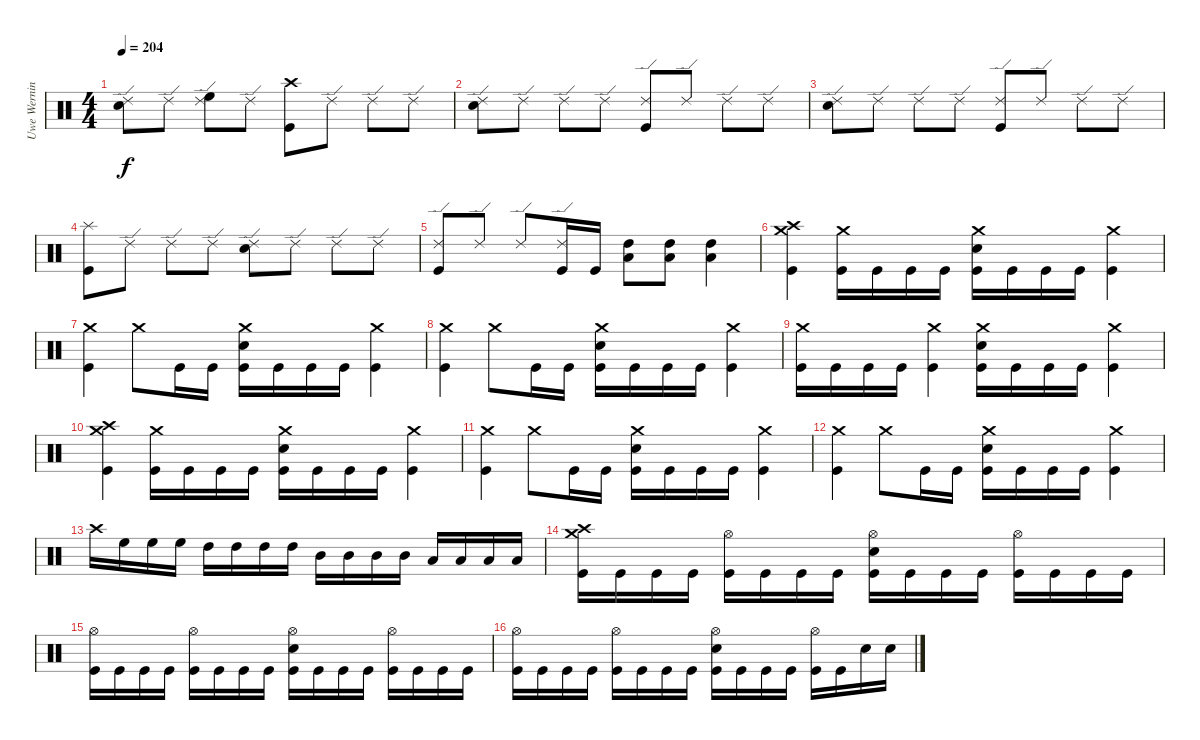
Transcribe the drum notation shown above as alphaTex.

\track ("Uwe Werning" "Uwe Wernin") {instrument percussion}
\staff {score}
\articulation defaults
\ts (4 4)
\tempo 204
\clef neutral
\ks c
("Ride (edge) 2" "Snare (hit) 2").8{dy f} "Ride (edge) 2".8 ("Ride (edge) 2" "High Floor Tom (hit)").8 "Ride (edge) 2".8 ("Crash high (hit)" "Kick (hit)").8 "Ride (edge) 2".8 "Ride (edge) 2".8 "Ride (edge) 2".8 |
("Ride (edge) 2" "Snare (hit) 2").8 "Ride (edge) 2".8 "Ride (edge) 2".8 "Ride (edge) 2".8 ("Ride (edge) 2" "Kick (hit)").8 "Ride (edge) 2".8 "Ride (edge) 2".8 "Ride (edge) 2".8 |
("Ride (edge) 2" "Snare (hit) 2").8 "Ride (edge) 2".8 "Ride (edge) 2".8 "Ride (edge) 2".8 ("Ride (edge) 2" "Kick (hit)").8 "Ride (edge) 2".8 "Ride (edge) 2".8 "Ride (edge) 2".8 |
("Splash (hit)" "Kick (hit)").8 "Ride (edge) 2".8 "Ride (edge) 2".8 "Ride (edge) 2".8 ("Ride (edge) 2" "Snare (hit) 2").8 "Ride (edge) 2".8 "Ride (edge) 2".8 "Ride (edge) 2".8 |
("Ride (edge) 2" "Kick (hit)").8 "Ride (edge) 2".8 "Ride (edge) 2".8 ("Ride (edge) 2" "Kick (hit)").16 "Kick (hit)".16 ("Low Tom (hit)" "High Tom (hit)").8 ("Low Tom (hit)" "High Tom (hit)").8 ("Low Tom (hit)" "High Tom (hit)").4 |
("Crash high (hit)" "Crash medium (hit)" "Kick (hit)").4 ("Crash medium (hit)" "Kick (hit)").16 "Kick (hit)".16 "Kick (hit)".16 "Kick (hit)".16 ("Crash medium (hit)" "Snare (hit) 2" "Kick (hit)").16 "Kick (hit)".16 "Kick (hit)".16 "Kick (hit)".16 ("Crash medium (hit)" "Kick (hit)").4 |
("Crash medium (hit)" "Kick (hit)").4 "Crash medium (hit)".8 "Kick (hit)".16 "Kick (hit)".16 ("Crash medium (hit)" "Snare (hit) 2" "Kick (hit)").16 "Kick (hit)".16 "Kick (hit)".16 "Kick (hit)".16 ("Crash medium (hit)" "Kick (hit)").4 |
("Crash medium (hit)" "Kick (hit)").4 "Crash medium (hit)".8 "Kick (hit)".16 "Kick (hit)".16 ("Crash medium (hit)" "Snare (hit) 2" "Kick (hit)").16 "Kick (hit)".16 "Kick (hit)".16 "Kick (hit)".16 ("Crash medium (hit)" "Kick (hit)").4 |
("Crash medium (hit)" "Kick (hit)").16 "Kick (hit)".16 "Kick (hit)".16 "Kick (hit)".16 ("Crash medium (hit)" "Kick (hit)").4 ("Crash medium (hit)" "Snare (hit) 2" "Kick (hit)").16 "Kick (hit)".16 "Kick (hit)".16 "Kick (hit)".16 ("Crash medium (hit)" "Kick (hit)").4 |
("Crash high (hit)" "Crash medium (hit)" "Kick (hit)").4 ("Crash medium (hit)" "Kick (hit)").16 "Kick (hit)".16 "Kick (hit)".16 "Kick (hit)".16 ("Crash medium (hit)" "Snare (hit) 2" "Kick (hit)").16 "Kick (hit)".16 "Kick (hit)".16 "Kick (hit)".16 ("Crash medium (hit)" "Kick (hit)").4 |
("Crash medium (hit)" "Kick (hit)").4 "Crash medium (hit)".8 "Kick (hit)".16 "Kick (hit)".16 ("Crash medium (hit)" "Snare (hit) 2" "Kick (hit)").16 "Kick (hit)".16 "Kick (hit)".16 "Kick (hit)".16 ("Crash medium (hit)" "Kick (hit)").4 |
("Crash medium (hit)" "Kick (hit)").4 "Crash medium (hit)".8 "Kick (hit)".16 "Kick (hit)".16 ("Crash medium (hit)" "Snare (hit) 2" "Kick (hit)").16 "Kick (hit)".16 "Kick (hit)".16 "Kick (hit)".16 ("Crash medium (hit)" "Kick (hit)").4 |
"Crash high (hit)".16 "High Floor Tom (hit)".16 "High Floor Tom (hit)".16 "High Floor Tom (hit)".16 "High Tom (hit)".16 "High Tom (hit)".16 "High Tom (hit)".16 "High Tom (hit)".16 "Mid Tom (hit)".16 "Mid Tom (hit)".16 "Mid Tom (hit)".16 "Mid Tom (hit)".16 "Low Tom (hit)".16 "Low Tom (hit)".16 "Low Tom (hit)".16 "Low Tom (hit)".16 |
("Crash high (hit)" "Crash medium (hit)" "Kick (hit)").16 "Kick (hit)".16 "Kick (hit)".16 "Kick (hit)".16 ("Hi-Hat (open)" "Kick (hit)").16 "Kick (hit)".16 "Kick (hit)".16 "Kick (hit)".16 ("Hi-Hat (open)" "Snare (hit) 2" "Kick (hit)").16 "Kick (hit)".16 "Kick (hit)".16 "Kick (hit)".16 ("Hi-Hat (open)" "Kick (hit)").16 "Kick (hit)".16 "Kick (hit)".16 "Kick (hit)".16 |
("Hi-Hat (open)" "Kick (hit)").16 "Kick (hit)".16 "Kick (hit)".16 "Kick (hit)".16 ("Hi-Hat (open)" "Kick (hit)").16 "Kick (hit)".16 "Kick (hit)".16 "Kick (hit)".16 ("Hi-Hat (open)" "Snare (hit) 2" "Kick (hit)").16 "Kick (hit)".16 "Kick (hit)".16 "Kick (hit)".16 ("Hi-Hat (open)" "Kick (hit)").16 "Kick (hit)".16 "Kick (hit)".16 "Kick (hit)".16 |
("Hi-Hat (open)" "Kick (hit)").16 "Kick (hit)".16 "Kick (hit)".16 "Kick (hit)".16 ("Hi-Hat (open)" "Kick (hit)").16 "Kick (hit)".16 "Kick (hit)".16 "Kick (hit)".16 ("Hi-Hat (open)" "Snare (hit) 2" "Kick (hit)").16 "Kick (hit)".16 "Kick (hit)".16 "Kick (hit)".16 ("Hi-Hat (open)" "Kick (hit)").16 "Kick (hit)".16 "Snare (hit) 2".16 "Snare (hit) 2".16
